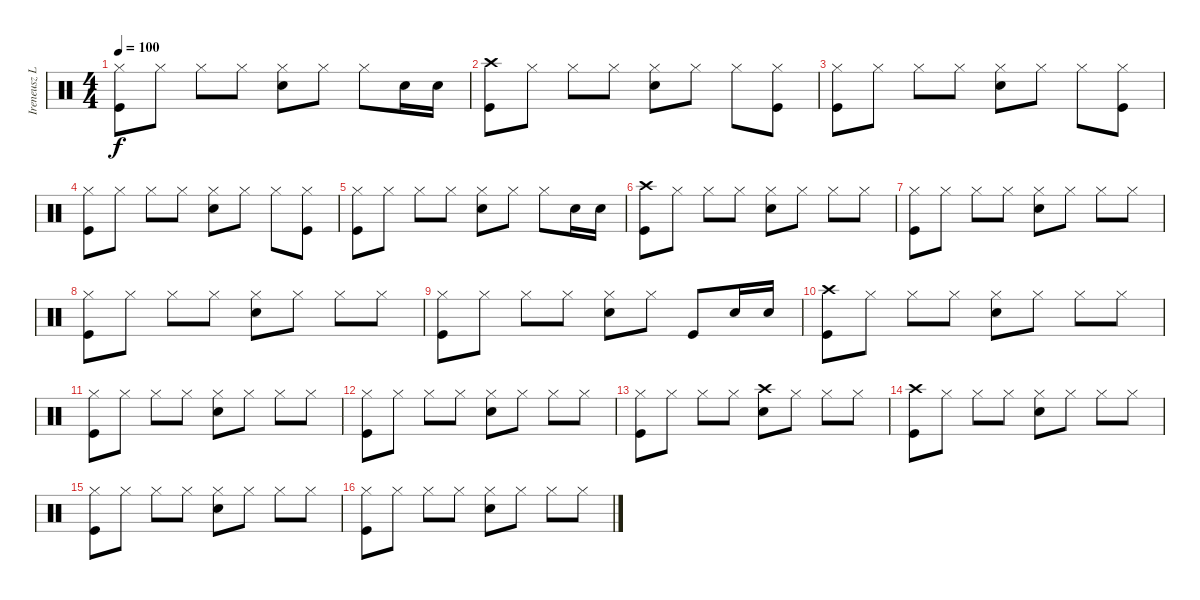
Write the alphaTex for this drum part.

\track ("Ireneusz Loth" "Ireneusz L") {instrument percussion}
\staff {score}
\articulation defaults
\ts (4 4)
\tempo 100
\clef neutral
\ks c
("Hi-Hat (closed)" "Kick (hit)").8{dy f} "Hi-Hat (closed)".8 "Hi-Hat (closed)".8 "Hi-Hat (closed)".8 ("Hi-Hat (closed)" "Snare (hit) 2").8 "Hi-Hat (closed)".8 "Hi-Hat (closed)".8 "Snare (hit) 2".16 "Snare (hit) 2".16 |
("Crash high (hit)" "Kick (hit)").8 "Hi-Hat (closed)".8 "Hi-Hat (closed)".8 "Hi-Hat (closed)".8 ("Hi-Hat (closed)" "Snare (hit) 2").8 "Hi-Hat (closed)".8 "Hi-Hat (closed)".8 ("Hi-Hat (closed)" "Kick (hit)").8 |
("Hi-Hat (closed)" "Kick (hit)").8 "Hi-Hat (closed)".8 "Hi-Hat (closed)".8 "Hi-Hat (closed)".8 ("Hi-Hat (closed)" "Snare (hit) 2").8 "Hi-Hat (closed)".8 "Hi-Hat (closed)".8 ("Hi-Hat (closed)" "Kick (hit)").8 |
("Hi-Hat (closed)" "Kick (hit)").8 "Hi-Hat (closed)".8 "Hi-Hat (closed)".8 "Hi-Hat (closed)".8 ("Hi-Hat (closed)" "Snare (hit) 2").8 "Hi-Hat (closed)".8 "Hi-Hat (closed)".8 ("Hi-Hat (closed)" "Kick (hit)").8 |
("Hi-Hat (closed)" "Kick (hit)").8 "Hi-Hat (closed)".8 "Hi-Hat (closed)".8 "Hi-Hat (closed)".8 ("Hi-Hat (closed)" "Snare (hit) 2").8 "Hi-Hat (closed)".8 "Hi-Hat (closed)".8 "Snare (hit) 2".16 "Snare (hit) 2".16 |
("Crash high (hit)" "Kick (hit)").8 "Hi-Hat (closed)".8 "Hi-Hat (closed)".8 "Hi-Hat (closed)".8 ("Hi-Hat (closed)" "Snare (hit) 2").8 "Hi-Hat (closed)".8 "Hi-Hat (closed)".8 "Hi-Hat (closed)".8 |
("Hi-Hat (closed)" "Kick (hit)").8 "Hi-Hat (closed)".8 "Hi-Hat (closed)".8 "Hi-Hat (closed)".8 ("Hi-Hat (closed)" "Snare (hit) 2").8 "Hi-Hat (closed)".8 "Hi-Hat (closed)".8 "Hi-Hat (closed)".8 |
("Hi-Hat (closed)" "Kick (hit)").8 "Hi-Hat (closed)".8 "Hi-Hat (closed)".8 "Hi-Hat (closed)".8 ("Hi-Hat (closed)" "Snare (hit) 2").8 "Hi-Hat (closed)".8 "Hi-Hat (closed)".8 "Hi-Hat (closed)".8 |
("Hi-Hat (closed)" "Kick (hit)").8 "Hi-Hat (closed)".8 "Hi-Hat (closed)".8 "Hi-Hat (closed)".8 ("Hi-Hat (closed)" "Snare (hit) 2").8 "Hi-Hat (closed)".8 "Kick (hit)".8 "Snare (hit) 2".16 "Snare (hit) 2".16 |
("Crash high (hit)" "Kick (hit)").8 "Hi-Hat (closed)".8 "Hi-Hat (closed)".8 "Hi-Hat (closed)".8 ("Hi-Hat (closed)" "Snare (hit) 2").8 "Hi-Hat (closed)".8 "Hi-Hat (closed)".8 "Hi-Hat (closed)".8 |
("Hi-Hat (closed)" "Kick (hit)").8 "Hi-Hat (closed)".8 "Hi-Hat (closed)".8 "Hi-Hat (closed)".8 ("Hi-Hat (closed)" "Snare (hit) 2").8 "Hi-Hat (closed)".8 "Hi-Hat (closed)".8 "Hi-Hat (closed)".8 |
("Hi-Hat (closed)" "Kick (hit)").8 "Hi-Hat (closed)".8 "Hi-Hat (closed)".8 "Hi-Hat (closed)".8 ("Hi-Hat (closed)" "Snare (hit) 2").8 "Hi-Hat (closed)".8 "Hi-Hat (closed)".8 "Hi-Hat (closed)".8 |
("Hi-Hat (closed)" "Kick (hit)").8 "Hi-Hat (closed)".8 "Hi-Hat (closed)".8 "Hi-Hat (closed)".8 ("Crash high (hit)" "Snare (hit) 2").8 "Hi-Hat (closed)".8 "Hi-Hat (closed)".8 "Hi-Hat (closed)".8 |
("Crash high (hit)" "Kick (hit)").8 "Hi-Hat (closed)".8 "Hi-Hat (closed)".8 "Hi-Hat (closed)".8 ("Hi-Hat (closed)" "Snare (hit) 2").8 "Hi-Hat (closed)".8 "Hi-Hat (closed)".8 "Hi-Hat (closed)".8 |
("Hi-Hat (closed)" "Kick (hit)").8 "Hi-Hat (closed)".8 "Hi-Hat (closed)".8 "Hi-Hat (closed)".8 ("Hi-Hat (closed)" "Snare (hit) 2").8 "Hi-Hat (closed)".8 "Hi-Hat (closed)".8 "Hi-Hat (closed)".8 |
("Hi-Hat (closed)" "Kick (hit)").8 "Hi-Hat (closed)".8 "Hi-Hat (closed)".8 "Hi-Hat (closed)".8 ("Hi-Hat (closed)" "Snare (hit) 2").8 "Hi-Hat (closed)".8 "Hi-Hat (closed)".8 "Hi-Hat (closed)".8
